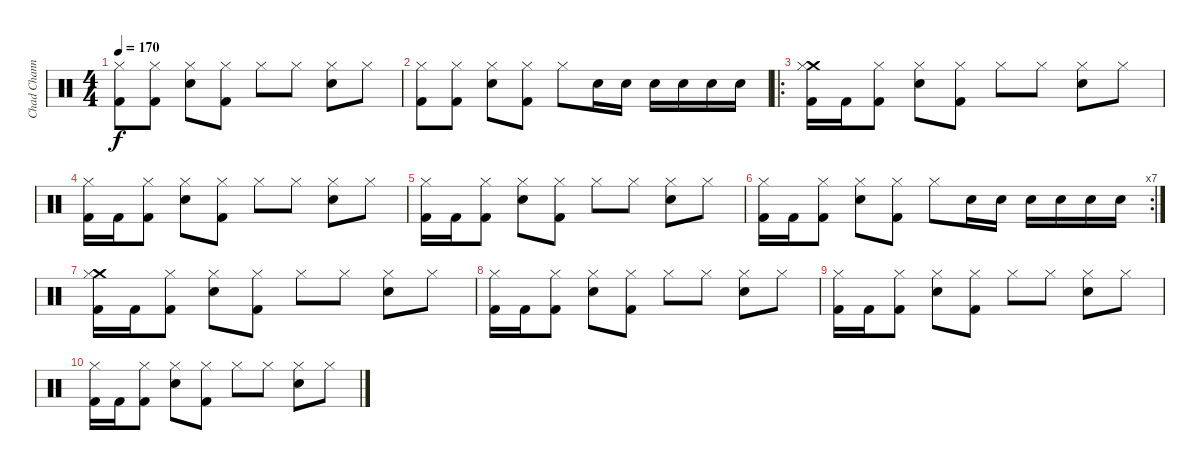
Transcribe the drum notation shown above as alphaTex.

\track ("Chad Channing" "Chad Chann") {instrument percussion}
\staff {score}
\articulation defaults
\ts (4 4)
\tempo 170
\clef neutral
\ks c
("Hi-Hat (closed)" "Kick (hit) 2").8{dy f} ("Hi-Hat (closed)" "Kick (hit) 2").8 ("Hi-Hat (closed)" "Snare (hit) 2").8 ("Hi-Hat (closed)" "Kick (hit) 2").8 "Hi-Hat (closed)".8 "Hi-Hat (closed)".8 ("Hi-Hat (closed)" "Snare (hit) 2").8 "Hi-Hat (closed)".8 |
("Hi-Hat (closed)" "Kick (hit) 2").8 ("Hi-Hat (closed)" "Kick (hit) 2").8 ("Hi-Hat (closed)" "Snare (hit) 2").8 ("Hi-Hat (closed)" "Kick (hit) 2").8 "Hi-Hat (closed)".8 "Snare (hit) 2".16 "Snare (hit) 2".16 "Snare (hit) 2".16 "Snare (hit) 2".16 "Snare (hit) 2".16 "Snare (hit) 2".16 |
\ro
("Crash medium (hit)" "Hi-Hat (closed)" "Kick (hit) 2").16 "Kick (hit) 2".16 ("Hi-Hat (closed)" "Kick (hit) 2").8 ("Hi-Hat (closed)" "Snare (hit) 2").8 ("Hi-Hat (closed)" "Kick (hit) 2").8 "Hi-Hat (closed)".8 "Hi-Hat (closed)".8 ("Hi-Hat (closed)" "Snare (hit) 2").8 "Hi-Hat (closed)".8 |
("Hi-Hat (closed)" "Kick (hit) 2").16 "Kick (hit) 2".16 ("Hi-Hat (closed)" "Kick (hit) 2").8 ("Hi-Hat (closed)" "Snare (hit) 2").8 ("Hi-Hat (closed)" "Kick (hit) 2").8 "Hi-Hat (closed)".8 "Hi-Hat (closed)".8 ("Hi-Hat (closed)" "Snare (hit) 2").8 "Hi-Hat (closed)".8 |
("Hi-Hat (closed)" "Kick (hit) 2").16 "Kick (hit) 2".16 ("Hi-Hat (closed)" "Kick (hit) 2").8 ("Hi-Hat (closed)" "Snare (hit) 2").8 ("Hi-Hat (closed)" "Kick (hit) 2").8 "Hi-Hat (closed)".8 "Hi-Hat (closed)".8 ("Hi-Hat (closed)" "Snare (hit) 2").8 "Hi-Hat (closed)".8 |
\rc 7
("Hi-Hat (closed)" "Kick (hit) 2").16 "Kick (hit) 2".16 ("Hi-Hat (closed)" "Kick (hit) 2").8 ("Hi-Hat (closed)" "Snare (hit) 2").8 ("Hi-Hat (closed)" "Kick (hit) 2").8 "Hi-Hat (closed)".8 "Snare (hit) 2".16 "Snare (hit) 2".16 "Snare (hit) 2".16 "Snare (hit) 2".16 "Snare (hit) 2".16 "Snare (hit) 2".16 |
("Crash medium (hit)" "Hi-Hat (closed)" "Kick (hit) 2").16{volume 10} "Kick (hit) 2".16 ("Hi-Hat (closed)" "Kick (hit) 2").8 ("Hi-Hat (closed)" "Snare (hit) 2").8 ("Hi-Hat (closed)" "Kick (hit) 2").8 "Hi-Hat (closed)".8 "Hi-Hat (closed)".8 ("Hi-Hat (closed)" "Snare (hit) 2").8 "Hi-Hat (closed)".8 |
("Hi-Hat (closed)" "Kick (hit) 2").16{volume 7} "Kick (hit) 2".16 ("Hi-Hat (closed)" "Kick (hit) 2").8 ("Hi-Hat (closed)" "Snare (hit) 2").8 ("Hi-Hat (closed)" "Kick (hit) 2").8 "Hi-Hat (closed)".8 "Hi-Hat (closed)".8 ("Hi-Hat (closed)" "Snare (hit) 2").8 "Hi-Hat (closed)".8 |
("Hi-Hat (closed)" "Kick (hit) 2").16{volume 4} "Kick (hit) 2".16 ("Hi-Hat (closed)" "Kick (hit) 2").8 ("Hi-Hat (closed)" "Snare (hit) 2").8 ("Hi-Hat (closed)" "Kick (hit) 2").8 "Hi-Hat (closed)".8 "Hi-Hat (closed)".8 ("Hi-Hat (closed)" "Snare (hit) 2").8 "Hi-Hat (closed)".8 |
("Hi-Hat (closed)" "Kick (hit) 2").16{volume 1} "Kick (hit) 2".16 ("Hi-Hat (closed)" "Kick (hit) 2").8 ("Hi-Hat (closed)" "Snare (hit) 2").8 ("Hi-Hat (closed)" "Kick (hit) 2").8 "Hi-Hat (closed)".8 "Hi-Hat (closed)".8 ("Hi-Hat (closed)" "Snare (hit) 2").8 "Hi-Hat (closed)".8
